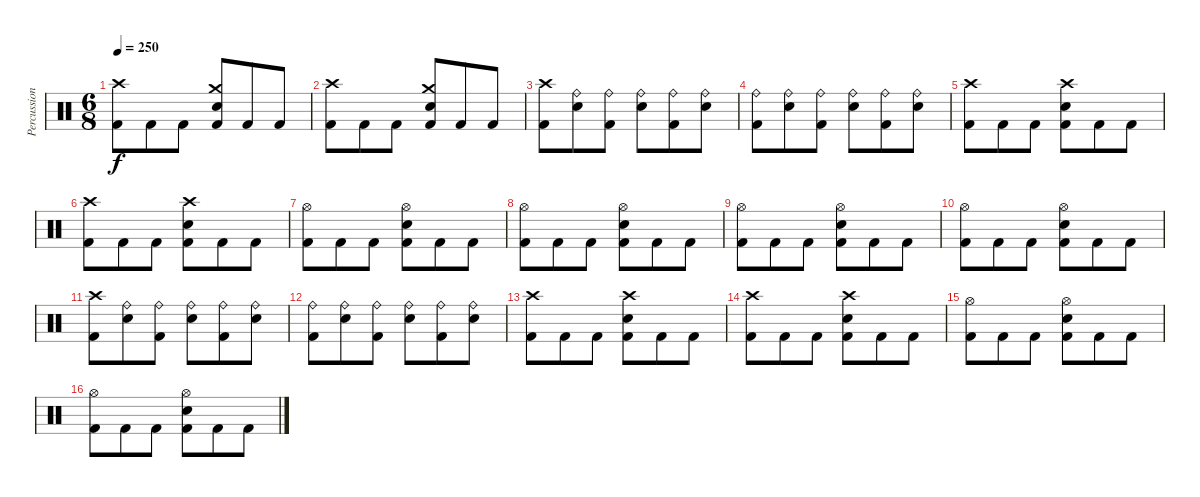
\track ("Percussion" "Percussion") {instrument percussion}
\staff {score}
\articulation defaults
\ts (6 8)
\tempo 250
\clef neutral
\ks c
("Crash high (hit)" "Kick (hit) 2").8{dy f} "Kick (hit) 2".8 "Kick (hit) 2".8 ("Crash medium (hit)" "Electric Snare (hit)" "Kick (hit) 2").8 "Kick (hit) 2".8 "Kick (hit) 2".8 |
("Crash high (hit)" "Kick (hit) 2").8 "Kick (hit) 2".8 "Kick (hit) 2".8 ("Crash medium (hit)" "Electric Snare (hit)" "Kick (hit) 2").8 "Kick (hit) 2".8 "Kick (hit) 2".8 |
("Crash high (hit)" "Kick (hit) 2").8 ("Ride (bell)" "Electric Snare (hit)").8 ("Ride (bell)" "Kick (hit) 2").8 ("Ride (bell)" "Electric Snare (hit)").8 ("Ride (bell)" "Kick (hit) 2").8 ("Ride (bell)" "Electric Snare (hit)").8 |
("Ride (bell)" "Kick (hit) 2").8 ("Ride (bell)" "Electric Snare (hit)").8 ("Ride (bell)" "Kick (hit) 2").8 ("Ride (bell)" "Electric Snare (hit)").8 ("Ride (bell)" "Kick (hit) 2").8 ("Ride (bell)" "Electric Snare (hit)").8 |
("Crash high (hit)" "Kick (hit) 2").8 "Kick (hit) 2".8 "Kick (hit) 2".8 ("Crash high (hit)" "Electric Snare (hit)" "Kick (hit) 2").8 "Kick (hit) 2".8 "Kick (hit) 2".8 |
("Crash high (hit)" "Kick (hit) 2").8 "Kick (hit) 2".8 "Kick (hit) 2".8 ("Crash high (hit)" "Electric Snare (hit)" "Kick (hit) 2").8 "Kick (hit) 2".8 "Kick (hit) 2".8 |
("Hi-Hat (open)" "Kick (hit) 2").8 "Kick (hit) 2".8 "Kick (hit) 2".8 ("Hi-Hat (open)" "Electric Snare (hit)" "Kick (hit) 2").8 "Kick (hit) 2".8 "Kick (hit) 2".8 |
("Hi-Hat (open)" "Kick (hit) 2").8 "Kick (hit) 2".8 "Kick (hit) 2".8 ("Hi-Hat (open)" "Electric Snare (hit)" "Kick (hit) 2").8 "Kick (hit) 2".8 "Kick (hit) 2".8 |
("Hi-Hat (open)" "Kick (hit) 2").8 "Kick (hit) 2".8 "Kick (hit) 2".8 ("Hi-Hat (open)" "Electric Snare (hit)" "Kick (hit) 2").8 "Kick (hit) 2".8 "Kick (hit) 2".8 |
("Hi-Hat (open)" "Kick (hit) 2").8 "Kick (hit) 2".8 "Kick (hit) 2".8 ("Hi-Hat (open)" "Electric Snare (hit)" "Kick (hit) 2").8 "Kick (hit) 2".8 "Kick (hit) 2".8 |
("Crash high (hit)" "Kick (hit) 2").8 ("Ride (bell)" "Electric Snare (hit)").8 ("Ride (bell)" "Kick (hit) 2").8 ("Ride (bell)" "Electric Snare (hit)").8 ("Ride (bell)" "Kick (hit) 2").8 ("Ride (bell)" "Electric Snare (hit)").8 |
("Ride (bell)" "Kick (hit) 2").8 ("Ride (bell)" "Electric Snare (hit)").8 ("Ride (bell)" "Kick (hit) 2").8 ("Ride (bell)" "Electric Snare (hit)").8 ("Ride (bell)" "Kick (hit) 2").8 ("Ride (bell)" "Electric Snare (hit)").8 |
("Crash high (hit)" "Kick (hit) 2").8 "Kick (hit) 2".8 "Kick (hit) 2".8 ("Crash high (hit)" "Electric Snare (hit)" "Kick (hit) 2").8 "Kick (hit) 2".8 "Kick (hit) 2".8 |
("Crash high (hit)" "Kick (hit) 2").8 "Kick (hit) 2".8 "Kick (hit) 2".8 ("Crash high (hit)" "Electric Snare (hit)" "Kick (hit) 2").8 "Kick (hit) 2".8 "Kick (hit) 2".8 |
("Hi-Hat (open)" "Kick (hit) 2").8 "Kick (hit) 2".8 "Kick (hit) 2".8 ("Hi-Hat (open)" "Electric Snare (hit)" "Kick (hit) 2").8 "Kick (hit) 2".8 "Kick (hit) 2".8 |
("Hi-Hat (open)" "Kick (hit) 2").8 "Kick (hit) 2".8 "Kick (hit) 2".8 ("Hi-Hat (open)" "Electric Snare (hit)" "Kick (hit) 2").8 "Kick (hit) 2".8 "Kick (hit) 2".8
